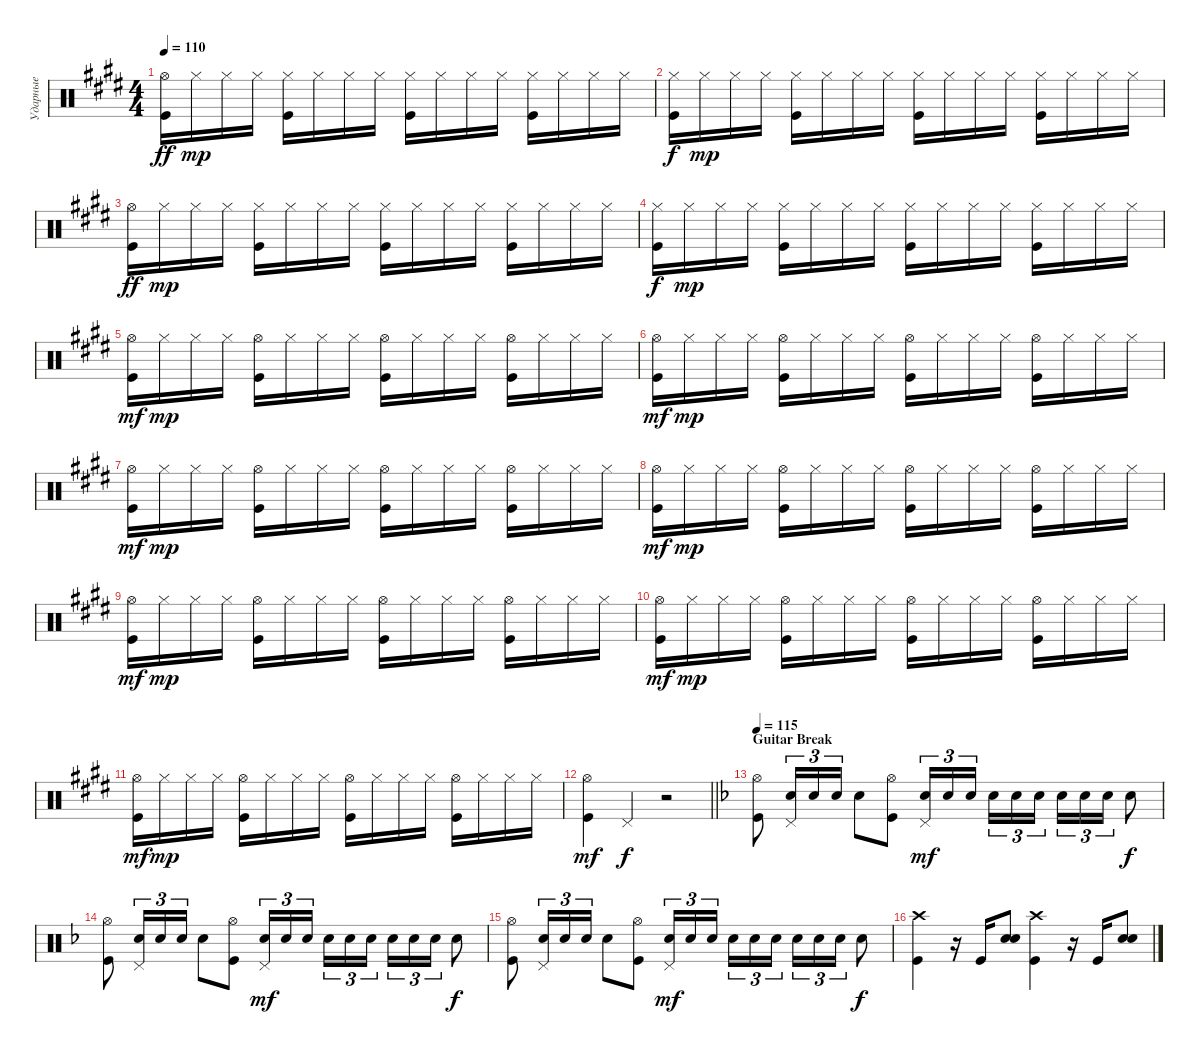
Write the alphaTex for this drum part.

\track ("Ударные" "Ударные") {instrument percussion}
\staff {score}
\articulation defaults
\ts (4 4)
\tempo 110
\clef neutral
\ks c#minor
("Kick (hit)" "Hi-Hat (open)").16{dy ff} "Hi-Hat (closed)".16{dy mp} "Hi-Hat (closed)".16 "Hi-Hat (closed)".16 ("Hi-Hat (closed)" "Kick (hit)").16 "Hi-Hat (closed)".16 "Hi-Hat (closed)".16 "Hi-Hat (closed)".16 ("Hi-Hat (closed)" "Kick (hit)").16 "Hi-Hat (closed)".16 "Hi-Hat (closed)".16 "Hi-Hat (closed)".16 ("Hi-Hat (closed)" "Kick (hit)").16 "Hi-Hat (closed)".16 "Hi-Hat (closed)".16 "Hi-Hat (closed)".16 |
("Kick (hit)" "Hi-Hat (closed)").16{dy f} "Hi-Hat (closed)".16{dy mp} "Hi-Hat (closed)".16 "Hi-Hat (closed)".16 ("Hi-Hat (closed)" "Kick (hit)").16 "Hi-Hat (closed)".16 "Hi-Hat (closed)".16 "Hi-Hat (closed)".16 ("Hi-Hat (closed)" "Kick (hit)").16 "Hi-Hat (closed)".16 "Hi-Hat (closed)".16 "Hi-Hat (closed)".16 ("Hi-Hat (closed)" "Kick (hit)").16 "Hi-Hat (closed)".16 "Hi-Hat (closed)".16 "Hi-Hat (closed)".16 |
("Kick (hit)" "Hi-Hat (open)").16{dy ff} "Hi-Hat (closed)".16{dy mp} "Hi-Hat (closed)".16 "Hi-Hat (closed)".16 ("Hi-Hat (closed)" "Kick (hit)").16 "Hi-Hat (closed)".16 "Hi-Hat (closed)".16 "Hi-Hat (closed)".16 ("Hi-Hat (closed)" "Kick (hit)").16 "Hi-Hat (closed)".16 "Hi-Hat (closed)".16 "Hi-Hat (closed)".16 ("Hi-Hat (closed)" "Kick (hit)").16 "Hi-Hat (closed)".16 "Hi-Hat (closed)".16 "Hi-Hat (closed)".16 |
("Kick (hit)" "Hi-Hat (closed)").16{dy f} "Hi-Hat (closed)".16{dy mp} "Hi-Hat (closed)".16 "Hi-Hat (closed)".16 ("Hi-Hat (closed)" "Kick (hit)").16 "Hi-Hat (closed)".16 "Hi-Hat (closed)".16 "Hi-Hat (closed)".16 ("Hi-Hat (closed)" "Kick (hit)").16 "Hi-Hat (closed)".16 "Hi-Hat (closed)".16 "Hi-Hat (closed)".16 ("Hi-Hat (closed)" "Kick (hit)").16 "Hi-Hat (closed)".16 "Hi-Hat (closed)".16 "Hi-Hat (closed)".16 |
("Kick (hit)" "Hi-Hat (open)").16{dy mf} "Hi-Hat (closed)".16{dy mp} "Hi-Hat (closed)".16 "Hi-Hat (closed)".16 ("Kick (hit)" "Hi-Hat (open)").16 "Hi-Hat (closed)".16 "Hi-Hat (closed)".16 "Hi-Hat (closed)".16 ("Kick (hit)" "Hi-Hat (open)").16 "Hi-Hat (closed)".16 "Hi-Hat (closed)".16 "Hi-Hat (closed)".16 ("Kick (hit)" "Hi-Hat (open)").16 "Hi-Hat (closed)".16 "Hi-Hat (closed)".16 "Hi-Hat (closed)".16 |
("Kick (hit)" "Hi-Hat (open)").16{dy mf} "Hi-Hat (closed)".16{dy mp} "Hi-Hat (closed)".16 "Hi-Hat (closed)".16 ("Kick (hit)" "Hi-Hat (open)").16 "Hi-Hat (closed)".16 "Hi-Hat (closed)".16 "Hi-Hat (closed)".16 ("Kick (hit)" "Hi-Hat (open)").16 "Hi-Hat (closed)".16 "Hi-Hat (closed)".16 "Hi-Hat (closed)".16 ("Kick (hit)" "Hi-Hat (open)").16 "Hi-Hat (closed)".16 "Hi-Hat (closed)".16 "Hi-Hat (closed)".16 |
("Kick (hit)" "Hi-Hat (open)").16{dy mf} "Hi-Hat (closed)".16{dy mp} "Hi-Hat (closed)".16 "Hi-Hat (closed)".16 ("Kick (hit)" "Hi-Hat (open)").16 "Hi-Hat (closed)".16 "Hi-Hat (closed)".16 "Hi-Hat (closed)".16 ("Kick (hit)" "Hi-Hat (open)").16 "Hi-Hat (closed)".16 "Hi-Hat (closed)".16 "Hi-Hat (closed)".16 ("Kick (hit)" "Hi-Hat (open)").16 "Hi-Hat (closed)".16 "Hi-Hat (closed)".16 "Hi-Hat (closed)".16 |
("Kick (hit)" "Hi-Hat (open)").16{dy mf} "Hi-Hat (closed)".16{dy mp} "Hi-Hat (closed)".16 "Hi-Hat (closed)".16 ("Kick (hit)" "Hi-Hat (open)").16 "Hi-Hat (closed)".16 "Hi-Hat (closed)".16 "Hi-Hat (closed)".16 ("Kick (hit)" "Hi-Hat (open)").16 "Hi-Hat (closed)".16 "Hi-Hat (closed)".16 "Hi-Hat (closed)".16 ("Kick (hit)" "Hi-Hat (open)").16 "Hi-Hat (closed)".16 "Hi-Hat (closed)".16 "Hi-Hat (closed)".16 |
("Kick (hit)" "Hi-Hat (open)").16{dy mf} "Hi-Hat (closed)".16{dy mp} "Hi-Hat (closed)".16 "Hi-Hat (closed)".16 ("Kick (hit)" "Hi-Hat (open)").16 "Hi-Hat (closed)".16 "Hi-Hat (closed)".16 "Hi-Hat (closed)".16 ("Kick (hit)" "Hi-Hat (open)").16 "Hi-Hat (closed)".16 "Hi-Hat (closed)".16 "Hi-Hat (closed)".16 ("Kick (hit)" "Hi-Hat (open)").16 "Hi-Hat (closed)".16 "Hi-Hat (closed)".16 "Hi-Hat (closed)".16 |
("Kick (hit)" "Hi-Hat (open)").16{dy mf} "Hi-Hat (closed)".16{dy mp} "Hi-Hat (closed)".16 "Hi-Hat (closed)".16 ("Kick (hit)" "Hi-Hat (open)").16 "Hi-Hat (closed)".16 "Hi-Hat (closed)".16 "Hi-Hat (closed)".16 ("Kick (hit)" "Hi-Hat (open)").16 "Hi-Hat (closed)".16 "Hi-Hat (closed)".16 "Hi-Hat (closed)".16 ("Kick (hit)" "Hi-Hat (open)").16 "Hi-Hat (closed)".16 "Hi-Hat (closed)".16 "Hi-Hat (closed)".16 |
("Kick (hit)" "Hi-Hat (open)").16{dy mf} "Hi-Hat (closed)".16{dy mp} "Hi-Hat (closed)".16 "Hi-Hat (closed)".16 ("Kick (hit)" "Hi-Hat (open)").16 "Hi-Hat (closed)".16 "Hi-Hat (closed)".16 "Hi-Hat (closed)".16 ("Kick (hit)" "Hi-Hat (open)").16 "Hi-Hat (closed)".16 "Hi-Hat (closed)".16 "Hi-Hat (closed)".16 ("Kick (hit)" "Hi-Hat (open)").16 "Hi-Hat (closed)".16 "Hi-Hat (closed)".16 "Hi-Hat (closed)".16 |
\barLineRight lightlight
("Kick (hit)" "Hi-Hat (open)").4{dy mf} "Pedal Hi-Hat (hit)".4{dy f} r.2 |
\section ("" "Guitar Break")
\tempo 115
\ks dminor
("Kick (hit)" "Hi-Hat (open)").8 ("Snare (hit) 2" "Pedal Hi-Hat (hit)").16{tu (3 2)} "Snare (hit) 2".16{tu (3 2)} "Snare (hit) 2".16{tu (3 2)} "Snare (hit) 2".8 ("Kick (hit)" "Hi-Hat (open)").8 ("Snare (hit) 2" "Pedal Hi-Hat (hit)").16{tu (3 2) dy mf} "Snare (hit) 2".16{tu (3 2)} "Snare (hit) 2".16{tu (3 2) beam splitsecondary} "Snare (hit) 2".16{tu (3 2)} "Snare (hit) 2".16{tu (3 2)} "Snare (hit) 2".16{tu (3 2)} "Snare (hit) 2".16{tu (3 2)} "Snare (hit) 2".16{tu (3 2)} "Snare (hit) 2".16{tu (3 2)} "Snare (hit) 2".8{dy f} |
("Kick (hit)" "Hi-Hat (open)").8 ("Snare (hit) 2" "Pedal Hi-Hat (hit)").16{tu (3 2)} "Snare (hit) 2".16{tu (3 2)} "Snare (hit) 2".16{tu (3 2)} "Snare (hit) 2".8 ("Kick (hit)" "Hi-Hat (open)").8 ("Snare (hit) 2" "Pedal Hi-Hat (hit)").16{tu (3 2) dy mf} "Snare (hit) 2".16{tu (3 2)} "Snare (hit) 2".16{tu (3 2) beam splitsecondary} "Snare (hit) 2".16{tu (3 2)} "Snare (hit) 2".16{tu (3 2)} "Snare (hit) 2".16{tu (3 2)} "Snare (hit) 2".16{tu (3 2)} "Snare (hit) 2".16{tu (3 2)} "Snare (hit) 2".16{tu (3 2)} "Snare (hit) 2".8{dy f} |
("Kick (hit)" "Hi-Hat (open)").8 ("Snare (hit) 2" "Pedal Hi-Hat (hit)").16{tu (3 2)} "Snare (hit) 2".16{tu (3 2)} "Snare (hit) 2".16{tu (3 2)} "Snare (hit) 2".8 ("Kick (hit)" "Hi-Hat (open)").8 ("Snare (hit) 2" "Pedal Hi-Hat (hit)").16{tu (3 2) dy mf} "Snare (hit) 2".16{tu (3 2)} "Snare (hit) 2".16{tu (3 2) beam splitsecondary} "Snare (hit) 2".16{tu (3 2)} "Snare (hit) 2".16{tu (3 2)} "Snare (hit) 2".16{tu (3 2)} "Snare (hit) 2".16{tu (3 2)} "Snare (hit) 2".16{tu (3 2)} "Snare (hit) 2".16{tu (3 2)} "Snare (hit) 2".8{dy f} |
("Kick (hit)" "Crash high (hit)").4 r.16 "Kick (hit)".16 ("Snare (hit) 2" "Snare (hit) 2").8{bd 480} ("Kick (hit)" "Crash high (hit)").4 r.16 "Kick (hit)".16 ("Snare (hit) 2" "Snare (hit) 2").8{bd 480}
